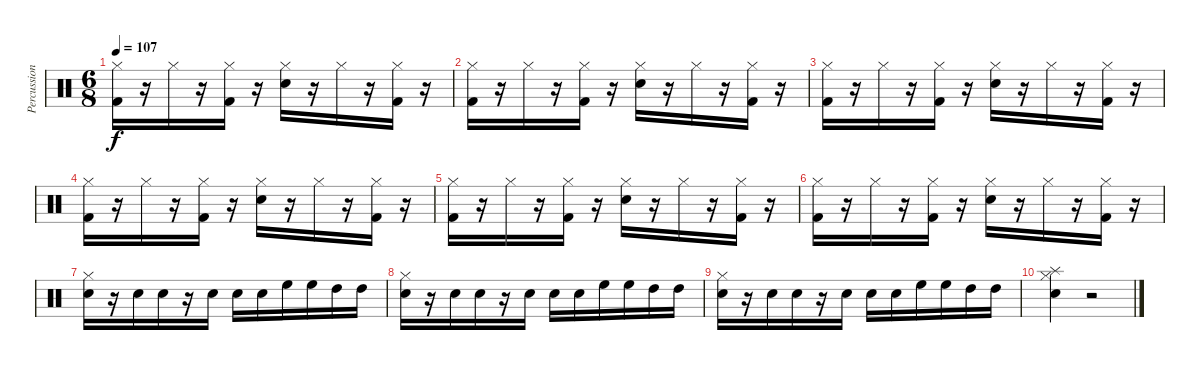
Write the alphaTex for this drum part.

\track ("Percussions" "Percussion") {instrument percussion}
\staff {score}
\articulation defaults
\ts (6 8)
\tempo 107
\clef neutral
\ks c
("Kick (hit) 2" "Hi-Hat (closed)").16{dy f} r.16 "Hi-Hat (closed)".16 r.16 ("Kick (hit) 2" "Hi-Hat (closed)").16 r.16 ("Snare (hit) 2" "Hi-Hat (closed)").16 r.16 "Hi-Hat (closed)".16 r.16 ("Kick (hit) 2" "Hi-Hat (closed)").16 r.16 |
("Kick (hit) 2" "Hi-Hat (closed)").16 r.16 "Hi-Hat (closed)".16 r.16 ("Kick (hit) 2" "Hi-Hat (closed)").16 r.16 ("Snare (hit) 2" "Hi-Hat (closed)").16 r.16 "Hi-Hat (closed)".16 r.16 ("Kick (hit) 2" "Hi-Hat (closed)").16 r.16 |
("Kick (hit) 2" "Hi-Hat (closed)").16 r.16 "Hi-Hat (closed)".16 r.16 ("Kick (hit) 2" "Hi-Hat (closed)").16 r.16 ("Snare (hit) 2" "Hi-Hat (closed)").16 r.16 "Hi-Hat (closed)".16 r.16 ("Kick (hit) 2" "Hi-Hat (closed)").16 r.16 |
("Kick (hit) 2" "Hi-Hat (closed)").16 r.16 "Hi-Hat (closed)".16 r.16 ("Kick (hit) 2" "Hi-Hat (closed)").16 r.16 ("Snare (hit) 2" "Hi-Hat (closed)").16 r.16 "Hi-Hat (closed)".16 r.16 ("Kick (hit) 2" "Hi-Hat (closed)").16 r.16 |
("Kick (hit) 2" "Hi-Hat (closed)").16 r.16 "Hi-Hat (closed)".16 r.16 ("Kick (hit) 2" "Hi-Hat (closed)").16 r.16 ("Snare (hit) 2" "Hi-Hat (closed)").16 r.16 "Hi-Hat (closed)".16 r.16 ("Kick (hit) 2" "Hi-Hat (closed)").16 r.16 |
("Kick (hit) 2" "Hi-Hat (closed)").16 r.16 "Hi-Hat (closed)".16 r.16 ("Kick (hit) 2" "Hi-Hat (closed)").16 r.16 ("Snare (hit) 2" "Hi-Hat (closed)").16 r.16 "Hi-Hat (closed)".16 r.16 ("Kick (hit) 2" "Hi-Hat (closed)").16 r.16 |
("Snare (hit) 2" "Hi-Hat (closed)").16 r.16 "Snare (hit) 2".16 "Snare (hit) 2".16 r.16 "Snare (hit) 2".16 "Snare (hit) 2".16 "Snare (hit) 2".16 "High Floor Tom (hit)".16 "High Floor Tom (hit)".16 "High Tom (hit)".16 "High Tom (hit)".16 |
("Snare (hit) 2" "Hi-Hat (closed)").16 r.16 "Snare (hit) 2".16 "Snare (hit) 2".16 r.16 "Snare (hit) 2".16 "Snare (hit) 2".16 "Snare (hit) 2".16 "High Floor Tom (hit)".16 "High Floor Tom (hit)".16 "High Tom (hit)".16 "High Tom (hit)".16 |
("Snare (hit) 2" "Hi-Hat (closed)").16 r.16 "Snare (hit) 2".16 "Snare (hit) 2".16 r.16 "Snare (hit) 2".16 "Snare (hit) 2".16 "Snare (hit) 2".16 "High Floor Tom (hit)".16 "High Floor Tom (hit)".16 "High Tom (hit)".16 "High Tom (hit)".16 |
("Snare (hit) 2" "Hi-Hat (closed)" "Splash (hit)").4 r.2
